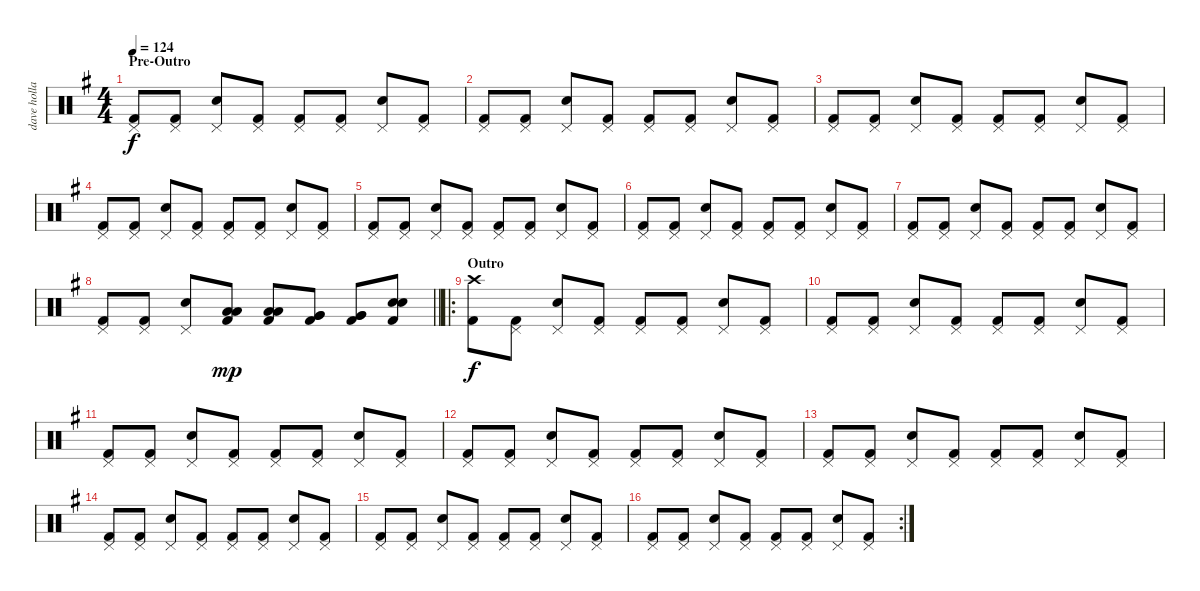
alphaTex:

\track ("dave holland" "dave holla") {instrument percussion}
\staff {score}
\articulation defaults
\ts (4 4)
\section ("" "Pre-Outro")
\tempo 124
\clef neutral
\ks g
("Pedal Hi-Hat (hit)" "Kick (hit) 2").8{dy f} ("Pedal Hi-Hat (hit)" "Kick (hit) 2").8 ("Pedal Hi-Hat (hit)" "Snare (hit) 2").8 ("Pedal Hi-Hat (hit)" "Kick (hit) 2").8 ("Pedal Hi-Hat (hit)" "Kick (hit) 2").8 ("Pedal Hi-Hat (hit)" "Kick (hit) 2").8 ("Pedal Hi-Hat (hit)" "Snare (hit) 2").8 ("Pedal Hi-Hat (hit)" "Kick (hit) 2").8 |
("Pedal Hi-Hat (hit)" "Kick (hit) 2").8 ("Pedal Hi-Hat (hit)" "Kick (hit) 2").8 ("Pedal Hi-Hat (hit)" "Snare (hit) 2").8 ("Pedal Hi-Hat (hit)" "Kick (hit) 2").8 ("Pedal Hi-Hat (hit)" "Kick (hit) 2").8 ("Pedal Hi-Hat (hit)" "Kick (hit) 2").8 ("Pedal Hi-Hat (hit)" "Snare (hit) 2").8 ("Pedal Hi-Hat (hit)" "Kick (hit) 2").8 |
("Pedal Hi-Hat (hit)" "Kick (hit) 2").8 ("Pedal Hi-Hat (hit)" "Kick (hit) 2").8 ("Pedal Hi-Hat (hit)" "Snare (hit) 2").8 ("Pedal Hi-Hat (hit)" "Kick (hit) 2").8 ("Pedal Hi-Hat (hit)" "Kick (hit) 2").8 ("Pedal Hi-Hat (hit)" "Kick (hit) 2").8 ("Pedal Hi-Hat (hit)" "Snare (hit) 2").8 ("Pedal Hi-Hat (hit)" "Kick (hit) 2").8 |
("Pedal Hi-Hat (hit)" "Kick (hit) 2").8 ("Pedal Hi-Hat (hit)" "Kick (hit) 2").8 ("Pedal Hi-Hat (hit)" "Snare (hit) 2").8 ("Pedal Hi-Hat (hit)" "Kick (hit) 2").8 ("Pedal Hi-Hat (hit)" "Kick (hit) 2").8 ("Pedal Hi-Hat (hit)" "Kick (hit) 2").8 ("Pedal Hi-Hat (hit)" "Snare (hit) 2").8 ("Pedal Hi-Hat (hit)" "Kick (hit) 2").8 |
("Pedal Hi-Hat (hit)" "Kick (hit) 2").8 ("Pedal Hi-Hat (hit)" "Kick (hit) 2").8 ("Pedal Hi-Hat (hit)" "Snare (hit) 2").8 ("Pedal Hi-Hat (hit)" "Kick (hit) 2").8 ("Pedal Hi-Hat (hit)" "Kick (hit) 2").8 ("Pedal Hi-Hat (hit)" "Kick (hit) 2").8 ("Pedal Hi-Hat (hit)" "Snare (hit) 2").8 ("Pedal Hi-Hat (hit)" "Kick (hit) 2").8 |
("Pedal Hi-Hat (hit)" "Kick (hit) 2").8 ("Pedal Hi-Hat (hit)" "Kick (hit) 2").8 ("Pedal Hi-Hat (hit)" "Snare (hit) 2").8 ("Pedal Hi-Hat (hit)" "Kick (hit) 2").8 ("Pedal Hi-Hat (hit)" "Kick (hit) 2").8 ("Pedal Hi-Hat (hit)" "Kick (hit) 2").8 ("Pedal Hi-Hat (hit)" "Snare (hit) 2").8 ("Pedal Hi-Hat (hit)" "Kick (hit) 2").8 |
("Pedal Hi-Hat (hit)" "Kick (hit) 2").8 ("Pedal Hi-Hat (hit)" "Kick (hit) 2").8 ("Pedal Hi-Hat (hit)" "Snare (hit) 2").8 ("Pedal Hi-Hat (hit)" "Kick (hit) 2").8 ("Pedal Hi-Hat (hit)" "Kick (hit) 2").8 ("Pedal Hi-Hat (hit)" "Kick (hit) 2").8 ("Pedal Hi-Hat (hit)" "Snare (hit) 2").8 ("Pedal Hi-Hat (hit)" "Kick (hit) 2").8 |
\barLineRight lightlight
("Pedal Hi-Hat (hit)" "Kick (hit) 2").8 ("Pedal Hi-Hat (hit)" "Kick (hit) 2").8 ("Pedal Hi-Hat (hit)" "Snare (hit) 2").8 ("Low Tom (hit)" "Low Tom (hit)" "Kick (hit) 2").8{dy mp} ("Low Tom (hit)" "Low Tom (hit)" "Kick (hit) 2").8 ("Very Low Tom (hit)" "Very Low Tom (hit)" "Kick (hit) 2").8 ("Very Low Tom (hit)" "Very Low Tom (hit)" "Kick (hit) 2").8 ("Electric Snare (hit)" "Electric Snare (hit)" "Kick (hit) 2").8 |
\ro
\section ("" "Outro")
("Crash high (hit)" "Kick (hit) 2").8{dy f} ("Pedal Hi-Hat (hit)" "Kick (hit) 2").8 ("Pedal Hi-Hat (hit)" "Snare (hit) 2").8 ("Pedal Hi-Hat (hit)" "Kick (hit) 2").8 ("Pedal Hi-Hat (hit)" "Kick (hit) 2").8 ("Pedal Hi-Hat (hit)" "Kick (hit) 2").8 ("Pedal Hi-Hat (hit)" "Snare (hit) 2").8 ("Pedal Hi-Hat (hit)" "Kick (hit) 2").8 |
("Pedal Hi-Hat (hit)" "Kick (hit) 2").8 ("Pedal Hi-Hat (hit)" "Kick (hit) 2").8 ("Pedal Hi-Hat (hit)" "Snare (hit) 2").8 ("Pedal Hi-Hat (hit)" "Kick (hit) 2").8 ("Pedal Hi-Hat (hit)" "Kick (hit) 2").8 ("Pedal Hi-Hat (hit)" "Kick (hit) 2").8 ("Pedal Hi-Hat (hit)" "Snare (hit) 2").8 ("Pedal Hi-Hat (hit)" "Kick (hit) 2").8 |
("Pedal Hi-Hat (hit)" "Kick (hit) 2").8 ("Pedal Hi-Hat (hit)" "Kick (hit) 2").8 ("Pedal Hi-Hat (hit)" "Snare (hit) 2").8 ("Pedal Hi-Hat (hit)" "Kick (hit) 2").8 ("Pedal Hi-Hat (hit)" "Kick (hit) 2").8 ("Pedal Hi-Hat (hit)" "Kick (hit) 2").8 ("Pedal Hi-Hat (hit)" "Snare (hit) 2").8 ("Pedal Hi-Hat (hit)" "Kick (hit) 2").8 |
("Pedal Hi-Hat (hit)" "Kick (hit) 2").8 ("Pedal Hi-Hat (hit)" "Kick (hit) 2").8 ("Pedal Hi-Hat (hit)" "Snare (hit) 2").8 ("Pedal Hi-Hat (hit)" "Kick (hit) 2").8 ("Pedal Hi-Hat (hit)" "Kick (hit) 2").8 ("Pedal Hi-Hat (hit)" "Kick (hit) 2").8 ("Pedal Hi-Hat (hit)" "Snare (hit) 2").8 ("Pedal Hi-Hat (hit)" "Kick (hit) 2").8 |
("Pedal Hi-Hat (hit)" "Kick (hit) 2").8 ("Pedal Hi-Hat (hit)" "Kick (hit) 2").8 ("Pedal Hi-Hat (hit)" "Snare (hit) 2").8 ("Pedal Hi-Hat (hit)" "Kick (hit) 2").8 ("Pedal Hi-Hat (hit)" "Kick (hit) 2").8 ("Pedal Hi-Hat (hit)" "Kick (hit) 2").8 ("Pedal Hi-Hat (hit)" "Snare (hit) 2").8 ("Pedal Hi-Hat (hit)" "Kick (hit) 2").8 |
("Pedal Hi-Hat (hit)" "Kick (hit) 2").8 ("Pedal Hi-Hat (hit)" "Kick (hit) 2").8 ("Pedal Hi-Hat (hit)" "Snare (hit) 2").8 ("Pedal Hi-Hat (hit)" "Kick (hit) 2").8 ("Pedal Hi-Hat (hit)" "Kick (hit) 2").8 ("Pedal Hi-Hat (hit)" "Kick (hit) 2").8 ("Pedal Hi-Hat (hit)" "Snare (hit) 2").8 ("Pedal Hi-Hat (hit)" "Kick (hit) 2").8 |
("Pedal Hi-Hat (hit)" "Kick (hit) 2").8 ("Pedal Hi-Hat (hit)" "Kick (hit) 2").8 ("Pedal Hi-Hat (hit)" "Snare (hit) 2").8 ("Pedal Hi-Hat (hit)" "Kick (hit) 2").8 ("Pedal Hi-Hat (hit)" "Kick (hit) 2").8 ("Pedal Hi-Hat (hit)" "Kick (hit) 2").8 ("Pedal Hi-Hat (hit)" "Snare (hit) 2").8 ("Pedal Hi-Hat (hit)" "Kick (hit) 2").8 |
\rc 2
("Pedal Hi-Hat (hit)" "Kick (hit) 2").8 ("Pedal Hi-Hat (hit)" "Kick (hit) 2").8 ("Pedal Hi-Hat (hit)" "Snare (hit) 2").8 ("Pedal Hi-Hat (hit)" "Kick (hit) 2").8 ("Pedal Hi-Hat (hit)" "Kick (hit) 2").8 ("Pedal Hi-Hat (hit)" "Kick (hit) 2").8 ("Pedal Hi-Hat (hit)" "Snare (hit) 2").8 ("Pedal Hi-Hat (hit)" "Kick (hit) 2").8
